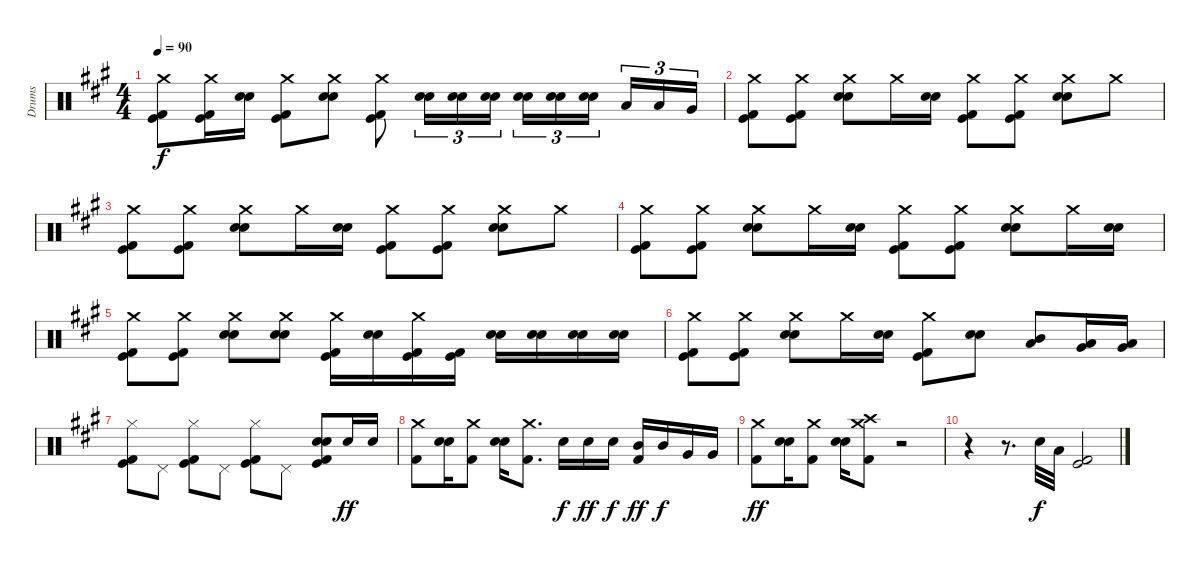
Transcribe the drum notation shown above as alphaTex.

\track ("Drums" "Drums") {instrument percussion}
\staff {score}
\articulation defaults
\ts (4 4)
\tempo 90
\clef neutral
\ks a
("Crash medium (hit)" "Kick (hit) 2" "Kick (hit)").8{dy f} ("Crash medium (hit)" "Kick (hit)" "Kick (hit) 2").16 ("Electric Snare (hit)" "Snare (hit) 2").16 ("Crash medium (hit)" "Kick (hit) 2" "Kick (hit)").8 ("Crash medium (hit)" "Electric Snare (hit)" "Snare (hit) 2").8 ("Crash medium (hit)" "Kick (hit)" "Kick (hit) 2").8 ("Electric Snare (hit)" "Snare (hit) 2").16{tu (3 2)} ("Electric Snare (hit)" "Snare (hit) 2").16{tu (3 2)} ("Electric Snare (hit)" "Snare (hit) 2").16{tu (3 2)} ("Electric Snare (hit)" "Snare (hit) 2").16{tu (3 2)} ("Electric Snare (hit)" "Snare (hit) 2").16{tu (3 2)} ("Electric Snare (hit)" "Snare (hit) 2").16{tu (3 2) beam splitsecondary} "Low Tom (hit)".16{tu (3 2)} "Low Tom (hit)".16{tu (3 2)} "Very Low Tom (hit)".16{tu (3 2)} |
("Crash medium (hit)" "Kick (hit) 2" "Kick (hit)").8 ("Crash medium (hit)" "Kick (hit) 2" "Kick (hit)").8 ("Crash medium (hit)" "Electric Snare (hit)" "Snare (hit) 2").8 "Crash medium (hit)".16 ("Electric Snare (hit)" "Snare (hit) 2").16 ("Crash medium (hit)" "Kick (hit) 2" "Kick (hit)").8 ("Crash medium (hit)" "Kick (hit) 2" "Kick (hit)").8 ("Crash medium (hit)" "Electric Snare (hit)" "Snare (hit) 2").8 "Crash medium (hit)".8 |
("Crash medium (hit)" "Kick (hit) 2" "Kick (hit)").8 ("Crash medium (hit)" "Kick (hit) 2" "Kick (hit)").8 ("Crash medium (hit)" "Electric Snare (hit)" "Snare (hit) 2").8 "Crash medium (hit)".16 ("Electric Snare (hit)" "Snare (hit) 2").16 ("Crash medium (hit)" "Kick (hit) 2" "Kick (hit)").8 ("Crash medium (hit)" "Kick (hit) 2" "Kick (hit)").8 ("Crash medium (hit)" "Electric Snare (hit)" "Snare (hit) 2").8 "Crash medium (hit)".8 |
("Crash medium (hit)" "Kick (hit) 2" "Kick (hit)").8 ("Crash medium (hit)" "Kick (hit) 2" "Kick (hit)").8 ("Crash medium (hit)" "Electric Snare (hit)" "Snare (hit) 2").8 "Crash medium (hit)".16 ("Electric Snare (hit)" "Snare (hit) 2").16 ("Crash medium (hit)" "Kick (hit) 2" "Kick (hit)").8 ("Crash medium (hit)" "Kick (hit) 2" "Kick (hit)").8 ("Crash medium (hit)" "Electric Snare (hit)" "Snare (hit) 2").8 "Crash medium (hit)".16 ("Electric Snare (hit)" "Snare (hit) 2").16 |
("Crash medium (hit)" "Kick (hit) 2" "Kick (hit)").8 ("Crash medium (hit)" "Kick (hit) 2" "Kick (hit)").8 ("Crash medium (hit)" "Electric Snare (hit)" "Snare (hit) 2").8 ("Crash medium (hit)" "Electric Snare (hit)" "Snare (hit) 2").8 ("Crash medium (hit)" "Kick (hit) 2" "Kick (hit)").16 ("Electric Snare (hit)" "Snare (hit) 2").16 ("Crash medium (hit)" "Kick (hit) 2" "Kick (hit)").16 ("Kick (hit) 2" "Kick (hit)").16 ("Electric Snare (hit)" "Snare (hit) 2").16 ("Electric Snare (hit)" "Snare (hit) 2").16 ("Electric Snare (hit)" "Snare (hit) 2").16 ("Electric Snare (hit)" "Snare (hit) 2").16 |
("Crash medium (hit)" "Kick (hit) 2" "Kick (hit)").8 ("Crash medium (hit)" "Kick (hit) 2" "Kick (hit)").8 ("Crash medium (hit)" "Electric Snare (hit)" "Snare (hit) 2").8 "Crash medium (hit)".16 ("Electric Snare (hit)" "Snare (hit) 2").16 ("Crash medium (hit)" "Kick (hit) 2" "Kick (hit)").8 ("Electric Snare (hit)" "Snare (hit) 2").8 ("Mid Tom (hit)" "Low Tom (hit)").8 ("Low Tom (hit)" "Very Low Tom (hit)").16 ("Low Tom (hit)" "Very Low Tom (hit)").16 |
("Hi-Hat (closed)" "Kick (hit) 2" "Kick (hit)").8 "Pedal Hi-Hat (hit)".8 ("Hi-Hat (closed)" "Kick (hit) 2" "Kick (hit)").8 "Pedal Hi-Hat (hit)".8 ("Hi-Hat (closed)" "Kick (hit) 2" "Kick (hit)").8 "Pedal Hi-Hat (hit)".8 ("Snare (hit) 2" "Electric Snare (hit)" "Kick (hit)" "Kick (hit) 2").8 "Electric Snare (hit)".16{dy ff} "Electric Snare (hit)".16 |
("Kick (hit) 2" "Crash medium (hit)").8 ("Electric Snare (hit)" "Snare (hit) 2").16 ("Kick (hit) 2" "Crash medium (hit)").8 ("Electric Snare (hit)" "Snare (hit) 2").16 ("Kick (hit) 2" "Crash medium (hit)").8{d} "Electric Snare (hit)".16{dy f} "Snare (hit) 2".16{dy ff} "Snare (hit) 2".16{dy f} ("Mid Tom (hit)" "Kick (hit) 2").16{dy ff} "Mid Tom (hit)".16{dy f} "Very Low Tom (hit)".16 "Very Low Tom (hit)".16 |
("Kick (hit) 2" "Crash medium (hit)").8{dy ff} ("Electric Snare (hit)" "Snare (hit) 2").16 ("Kick (hit) 2" "Crash medium (hit)").8 ("Electric Snare (hit)" "Snare (hit) 2").16 ("Kick (hit) 2" "Crash medium (hit)" "Crash high (hit)").8 r.2 |
r.4 r.8{d} "Snare (hit) 2".32{dy f} "Low Tom (hit)".32 ("Kick (hit) 2" "Kick (hit)").2
